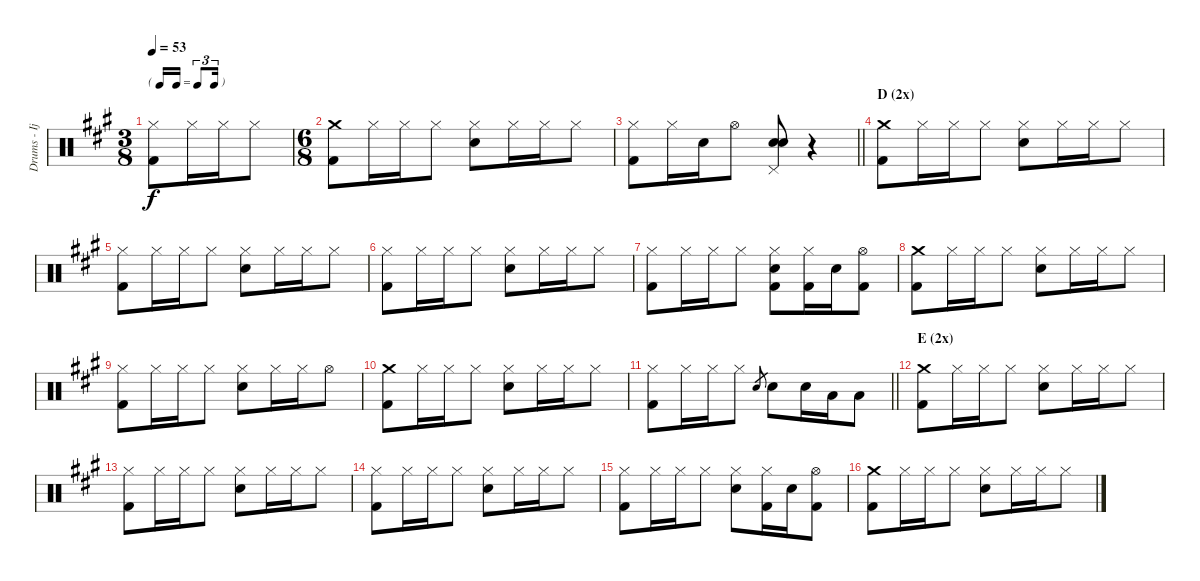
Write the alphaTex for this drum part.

\track ("Drums - Ijichi Kiyoshi" "Drums - Ij") {instrument percussion}
\staff {score}
\articulation defaults
\ts (3 8)
\tf triplet16th
\tempo 53
\clef neutral
\ks a
("Hi-Hat (closed)" "Kick (hit) 2").8{dy f} "Hi-Hat (closed)".16 "Hi-Hat (closed)".16 "Hi-Hat (closed)".8 |
\ts (6 8)
("Crash medium (hit)" "Kick (hit) 2").8 "Hi-Hat (closed)".16 "Hi-Hat (closed)".16 "Hi-Hat (closed)".8 ("Hi-Hat (closed)" "Electric Snare (hit)").8 "Hi-Hat (closed)".16 "Hi-Hat (closed)".16 "Hi-Hat (closed)".8 |
\barLineRight lightlight
("Hi-Hat (closed)" "Kick (hit) 2").8 "Hi-Hat (closed)".16 "Electric Snare (hit)".16 "Hi-Hat (open)".8 ("Electric Snare (hit)" "Electric Snare (hit)" "Pedal Hi-Hat (hit)").8 r.4 |
\section ("" "D (2x)")
("Crash medium (hit)" "Kick (hit) 2").8 "Hi-Hat (closed)".16 "Hi-Hat (closed)".16 "Hi-Hat (closed)".8 ("Hi-Hat (closed)" "Electric Snare (hit)").8 "Hi-Hat (closed)".16 "Hi-Hat (closed)".16 "Hi-Hat (closed)".8 |
("Hi-Hat (closed)" "Kick (hit) 2").8 "Hi-Hat (closed)".16 "Hi-Hat (closed)".16 "Hi-Hat (closed)".8 ("Hi-Hat (closed)" "Electric Snare (hit)").8 "Hi-Hat (closed)".16 "Hi-Hat (closed)".16 "Hi-Hat (closed)".8 |
("Hi-Hat (closed)" "Kick (hit) 2").8 "Hi-Hat (closed)".16 "Hi-Hat (closed)".16 "Hi-Hat (closed)".8 ("Hi-Hat (closed)" "Electric Snare (hit)").8 "Hi-Hat (closed)".16 "Hi-Hat (closed)".16 "Hi-Hat (closed)".8 |
("Hi-Hat (closed)" "Kick (hit) 2").8 "Hi-Hat (closed)".16 "Hi-Hat (closed)".16 "Hi-Hat (closed)".8 ("Hi-Hat (closed)" "Electric Snare (hit)" "Kick (hit) 2").8 ("Hi-Hat (closed)" "Kick (hit) 2").16 "Electric Snare (hit)".16 ("Hi-Hat (open)" "Kick (hit) 2").8 |
("Crash medium (hit)" "Kick (hit) 2").8 "Hi-Hat (closed)".16 "Hi-Hat (closed)".16 "Hi-Hat (closed)".8 ("Hi-Hat (closed)" "Electric Snare (hit)").8 "Hi-Hat (closed)".16 "Hi-Hat (closed)".16 "Hi-Hat (closed)".8 |
("Hi-Hat (closed)" "Kick (hit) 2").8 "Hi-Hat (closed)".16 "Hi-Hat (closed)".16 "Hi-Hat (closed)".8 ("Hi-Hat (closed)" "Electric Snare (hit)").8 "Hi-Hat (closed)".16 "Hi-Hat (closed)".16 "Hi-Hat (open)".8 |
("Crash medium (hit)" "Kick (hit) 2").8 "Hi-Hat (closed)".16 "Hi-Hat (closed)".16 "Hi-Hat (closed)".8 ("Hi-Hat (closed)" "Electric Snare (hit)").8 "Hi-Hat (closed)".16 "Hi-Hat (closed)".16 "Hi-Hat (closed)".8 |
\barLineRight lightlight
("Hi-Hat (closed)" "Kick (hit) 2").8 "Hi-Hat (closed)".16 "Hi-Hat (closed)".16 "Hi-Hat (closed)".8 "Electric Snare (hit)".8{gr} "Electric Snare (hit)".8 "Electric Snare (hit)".16 "Low Tom (hit)".16 "Low Tom (hit)".8 |
\section ("" "E (2x)")
("Crash medium (hit)" "Kick (hit) 2").8 "Hi-Hat (closed)".16 "Hi-Hat (closed)".16 "Hi-Hat (closed)".8 ("Hi-Hat (closed)" "Electric Snare (hit)").8 "Hi-Hat (closed)".16 "Hi-Hat (closed)".16 "Hi-Hat (closed)".8 |
("Hi-Hat (closed)" "Kick (hit) 2").8 "Hi-Hat (closed)".16 "Hi-Hat (closed)".16 "Hi-Hat (closed)".8 ("Hi-Hat (closed)" "Electric Snare (hit)").8 "Hi-Hat (closed)".16 "Hi-Hat (closed)".16 "Hi-Hat (closed)".8 |
("Hi-Hat (closed)" "Kick (hit) 2").8 "Hi-Hat (closed)".16 "Hi-Hat (closed)".16 "Hi-Hat (closed)".8 ("Hi-Hat (closed)" "Electric Snare (hit)").8 "Hi-Hat (closed)".16 "Hi-Hat (closed)".16 "Hi-Hat (closed)".8 |
("Hi-Hat (closed)" "Kick (hit) 2").8 "Hi-Hat (closed)".16 "Hi-Hat (closed)".16 "Hi-Hat (closed)".8 ("Hi-Hat (closed)" "Electric Snare (hit)").8 ("Hi-Hat (closed)" "Kick (hit) 2").16 "Electric Snare (hit)".16 ("Hi-Hat (open)" "Kick (hit) 2").8 |
("Crash medium (hit)" "Kick (hit) 2").8 "Hi-Hat (closed)".16 "Hi-Hat (closed)".16 "Hi-Hat (closed)".8 ("Hi-Hat (closed)" "Electric Snare (hit)").8 "Hi-Hat (closed)".16 "Hi-Hat (closed)".16 "Hi-Hat (closed)".8
